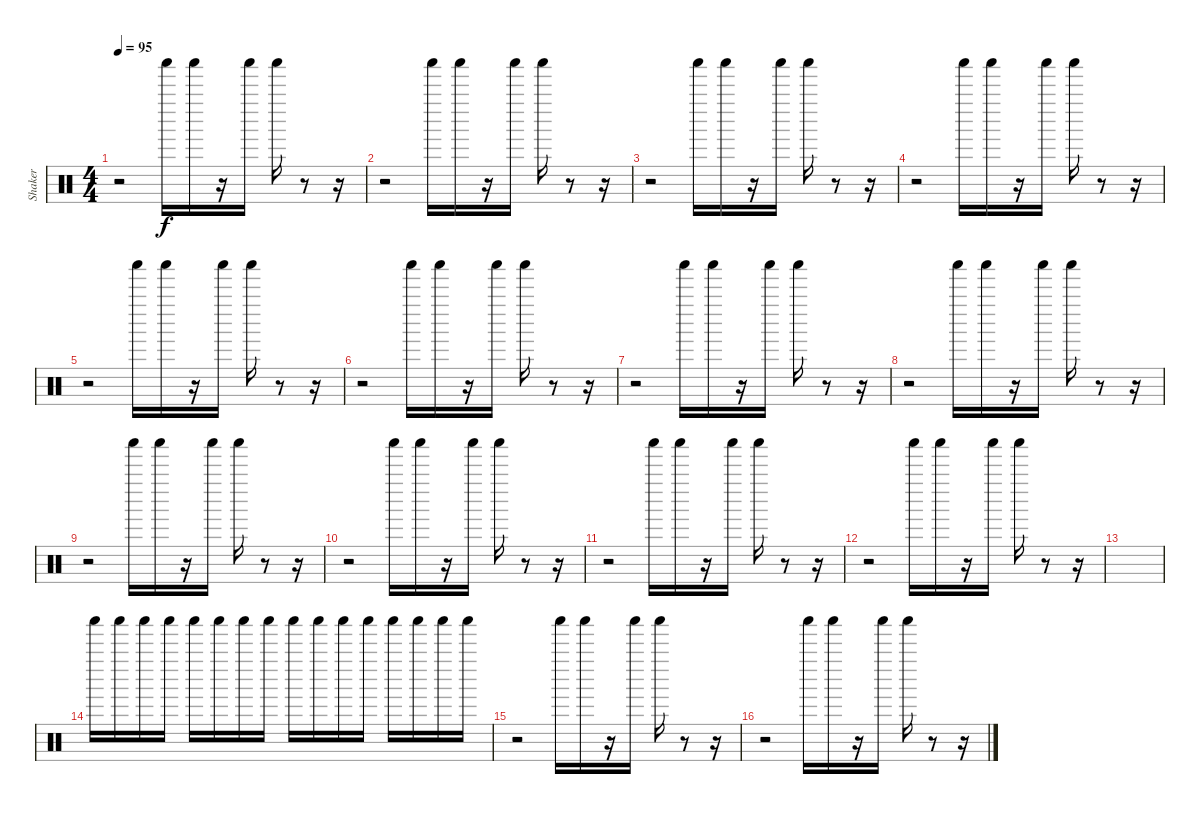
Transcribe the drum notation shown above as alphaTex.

\track ("Shaker" "Shaker") {instrument percussion}
\staff {score}
\articulation defaults
\ts (4 4)
\tempo 95
\clef neutral
\ks c
r.2{dy f} "Shaker (hit)".16 "Shaker (hit)".16 r.16 "Shaker (hit)".16 "Shaker (hit)".16 r.8 r.16 |
r.2 "Shaker (hit)".16 "Shaker (hit)".16 r.16 "Shaker (hit)".16 "Shaker (hit)".16 r.8 r.16 |
r.2 "Shaker (hit)".16 "Shaker (hit)".16 r.16 "Shaker (hit)".16 "Shaker (hit)".16 r.8 r.16 |
r.2 "Shaker (hit)".16 "Shaker (hit)".16 r.16 "Shaker (hit)".16 "Shaker (hit)".16 r.8 r.16 |
r.2 "Shaker (hit)".16 "Shaker (hit)".16 r.16 "Shaker (hit)".16 "Shaker (hit)".16 r.8 r.16 |
r.2 "Shaker (hit)".16 "Shaker (hit)".16 r.16 "Shaker (hit)".16 "Shaker (hit)".16 r.8 r.16 |
r.2 "Shaker (hit)".16 "Shaker (hit)".16 r.16 "Shaker (hit)".16 "Shaker (hit)".16 r.8 r.16 |
r.2 "Shaker (hit)".16 "Shaker (hit)".16 r.16 "Shaker (hit)".16 "Shaker (hit)".16 r.8 r.16 |
r.2 "Shaker (hit)".16 "Shaker (hit)".16 r.16 "Shaker (hit)".16 "Shaker (hit)".16 r.8 r.16 |
r.2 "Shaker (hit)".16 "Shaker (hit)".16 r.16 "Shaker (hit)".16 "Shaker (hit)".16 r.8 r.16 |
r.2 "Shaker (hit)".16 "Shaker (hit)".16 r.16 "Shaker (hit)".16 "Shaker (hit)".16 r.8 r.16 |
r.2 "Shaker (hit)".16 "Shaker (hit)".16 r.16 "Shaker (hit)".16 "Shaker (hit)".16 r.8 r.16 |
|
"Shaker (hit)".16 "Shaker (hit)".16 "Shaker (hit)".16 "Shaker (hit)".16 "Shaker (hit)".16 "Shaker (hit)".16 "Shaker (hit)".16 "Shaker (hit)".16 "Shaker (hit)".16 "Shaker (hit)".16 "Shaker (hit)".16 "Shaker (hit)".16 "Shaker (hit)".16 "Shaker (hit)".16 "Shaker (hit)".16 "Shaker (hit)".16 |
r.2 "Shaker (hit)".16 "Shaker (hit)".16 r.16 "Shaker (hit)".16 "Shaker (hit)".16 r.8 r.16 |
r.2 "Shaker (hit)".16 "Shaker (hit)".16 r.16 "Shaker (hit)".16 "Shaker (hit)".16 r.8 r.16
